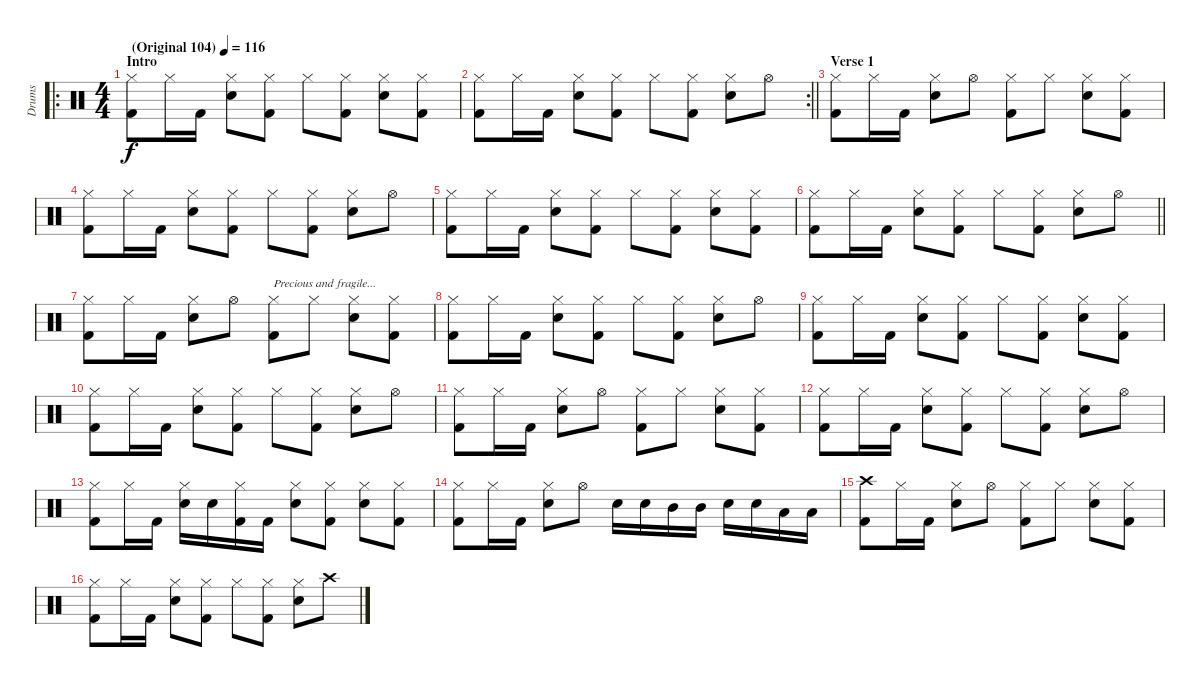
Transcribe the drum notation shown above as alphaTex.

\track ("Drums" "Drums") {instrument percussion}
\staff {score}
\articulation defaults
\ro
\ts (4 4)
\section ("" "Intro")
\tempo (116 "(Original 104)")
\clef neutral
\ks c
("Hi-Hat (closed)" "Kick (hit) 2").8{dy f} "Hi-Hat (closed)".16 "Kick (hit) 2".16 ("Hi-Hat (closed)" "Snare (hit) 2").8 ("Hi-Hat (closed)" "Kick (hit) 2").8 "Hi-Hat (closed)".8 ("Hi-Hat (closed)" "Kick (hit) 2").8 ("Hi-Hat (closed)" "Snare (hit) 2").8 ("Hi-Hat (closed)" "Kick (hit) 2").8 |
\rc 2
\barLineRight lightlight
("Hi-Hat (closed)" "Kick (hit) 2").8 "Hi-Hat (closed)".16 "Kick (hit) 2".16 ("Hi-Hat (closed)" "Snare (hit) 2").8 ("Hi-Hat (closed)" "Kick (hit) 2").8 "Hi-Hat (closed)".8 ("Hi-Hat (closed)" "Kick (hit) 2").8 ("Hi-Hat (closed)" "Snare (hit) 2").8 "Hi-Hat (open)".8 |
\section ("" "Verse 1")
("Hi-Hat (closed)" "Kick (hit) 2").8 "Hi-Hat (closed)".16 "Kick (hit) 2".16 ("Hi-Hat (closed)" "Snare (hit) 2").8 "Hi-Hat (open)".8 ("Hi-Hat (closed)" "Kick (hit) 2").8 "Hi-Hat (closed)".8 ("Hi-Hat (closed)" "Snare (hit) 2").8 ("Hi-Hat (closed)" "Kick (hit) 2").8 |
("Hi-Hat (closed)" "Kick (hit) 2").8 "Hi-Hat (closed)".16 "Kick (hit) 2".16 ("Hi-Hat (closed)" "Snare (hit) 2").8 ("Hi-Hat (closed)" "Kick (hit) 2").8 "Hi-Hat (closed)".8 ("Hi-Hat (closed)" "Kick (hit) 2").8 ("Hi-Hat (closed)" "Snare (hit) 2").8 "Hi-Hat (open)".8 |
("Hi-Hat (closed)" "Kick (hit) 2").8 "Hi-Hat (closed)".16 "Kick (hit) 2".16 ("Hi-Hat (closed)" "Snare (hit) 2").8 ("Hi-Hat (closed)" "Kick (hit) 2").8 "Hi-Hat (closed)".8 ("Hi-Hat (closed)" "Kick (hit) 2").8 ("Hi-Hat (closed)" "Snare (hit) 2").8 ("Hi-Hat (closed)" "Kick (hit) 2").8 |
\barLineRight lightlight
("Hi-Hat (closed)" "Kick (hit) 2").8 "Hi-Hat (closed)".16 "Kick (hit) 2".16 ("Hi-Hat (closed)" "Snare (hit) 2").8 ("Hi-Hat (closed)" "Kick (hit) 2").8 "Hi-Hat (closed)".8 ("Hi-Hat (closed)" "Kick (hit) 2").8 ("Hi-Hat (closed)" "Snare (hit) 2").8 "Hi-Hat (open)".8 |
\section ("" "")
("Hi-Hat (closed)" "Kick (hit) 2").8 "Hi-Hat (closed)".16 "Kick (hit) 2".16 ("Hi-Hat (closed)" "Snare (hit) 2").8 "Hi-Hat (open)".8 ("Hi-Hat (closed)" "Kick (hit) 2").8{txt "Precious and fragile..."} "Hi-Hat (closed)".8 ("Hi-Hat (closed)" "Snare (hit) 2").8 ("Hi-Hat (closed)" "Kick (hit) 2").8 |
("Hi-Hat (closed)" "Kick (hit) 2").8 "Hi-Hat (closed)".16 "Kick (hit) 2".16 ("Hi-Hat (closed)" "Snare (hit) 2").8 ("Hi-Hat (closed)" "Kick (hit) 2").8 "Hi-Hat (closed)".8 ("Hi-Hat (closed)" "Kick (hit) 2").8 ("Hi-Hat (closed)" "Snare (hit) 2").8 "Hi-Hat (open)".8 |
("Hi-Hat (closed)" "Kick (hit) 2").8 "Hi-Hat (closed)".16 "Kick (hit) 2".16 ("Hi-Hat (closed)" "Snare (hit) 2").8 ("Hi-Hat (closed)" "Kick (hit) 2").8 "Hi-Hat (closed)".8 ("Hi-Hat (closed)" "Kick (hit) 2").8 ("Hi-Hat (closed)" "Snare (hit) 2").8 ("Hi-Hat (closed)" "Kick (hit) 2").8 |
("Hi-Hat (closed)" "Kick (hit) 2").8 "Hi-Hat (closed)".16 "Kick (hit) 2".16 ("Hi-Hat (closed)" "Snare (hit) 2").8 ("Hi-Hat (closed)" "Kick (hit) 2").8 "Hi-Hat (closed)".8 ("Hi-Hat (closed)" "Kick (hit) 2").8 ("Hi-Hat (closed)" "Snare (hit) 2").8 "Hi-Hat (open)".8 |
("Hi-Hat (closed)" "Kick (hit) 2").8 "Hi-Hat (closed)".16 "Kick (hit) 2".16 ("Hi-Hat (closed)" "Snare (hit) 2").8 "Hi-Hat (open)".8 ("Hi-Hat (closed)" "Kick (hit) 2").8 "Hi-Hat (closed)".8 ("Hi-Hat (closed)" "Snare (hit) 2").8 ("Hi-Hat (closed)" "Kick (hit) 2").8 |
("Hi-Hat (closed)" "Kick (hit) 2").8 "Hi-Hat (closed)".16 "Kick (hit) 2".16 ("Hi-Hat (closed)" "Snare (hit) 2").8 ("Hi-Hat (closed)" "Kick (hit) 2").8 "Hi-Hat (closed)".8 ("Hi-Hat (closed)" "Kick (hit) 2").8 ("Hi-Hat (closed)" "Snare (hit) 2").8 "Hi-Hat (open)".8 |
("Hi-Hat (closed)" "Kick (hit) 2").8 "Hi-Hat (closed)".16 "Kick (hit) 2".16 ("Hi-Hat (closed)" "Snare (hit) 2").16 "Snare (hit) 2".16 ("Hi-Hat (closed)" "Kick (hit) 2").16 "Kick (hit) 2".16 ("Hi-Hat (closed)" "Snare (hit) 2").8 ("Hi-Hat (closed)" "Kick (hit) 2").8 ("Hi-Hat (closed)" "Snare (hit) 2").8 ("Hi-Hat (closed)" "Kick (hit) 2").8 |
("Hi-Hat (closed)" "Kick (hit) 2").8 "Hi-Hat (closed)".16 "Kick (hit) 2".16 ("Hi-Hat (closed)" "Snare (hit) 2").8 "Hi-Hat (open)".8 "Snare (hit) 2".16 "Snare (hit) 2".16 "Mid Tom (hit)".16 "Mid Tom (hit)".16 "Snare (hit) 2".16 "Snare (hit) 2".16 "Low Floor Tom (hit)".16 "Low Floor Tom (hit)".16 |
("Crash high (hit)" "Kick (hit) 2").8 "Hi-Hat (closed)".16 "Kick (hit) 2".16 ("Hi-Hat (closed)" "Snare (hit) 2").8 "Hi-Hat (open)".8 ("Hi-Hat (closed)" "Kick (hit) 2").8 "Hi-Hat (closed)".8 ("Hi-Hat (closed)" "Snare (hit) 2").8 ("Hi-Hat (closed)" "Kick (hit) 2").8 |
("Hi-Hat (closed)" "Kick (hit) 2").8 "Hi-Hat (closed)".16 "Kick (hit) 2".16 ("Hi-Hat (closed)" "Snare (hit) 2").8 ("Hi-Hat (closed)" "Kick (hit) 2").8 "Hi-Hat (closed)".8 ("Hi-Hat (closed)" "Kick (hit) 2").8 ("Hi-Hat (closed)" "Snare (hit) 2").8 "Crash high (hit)".8
